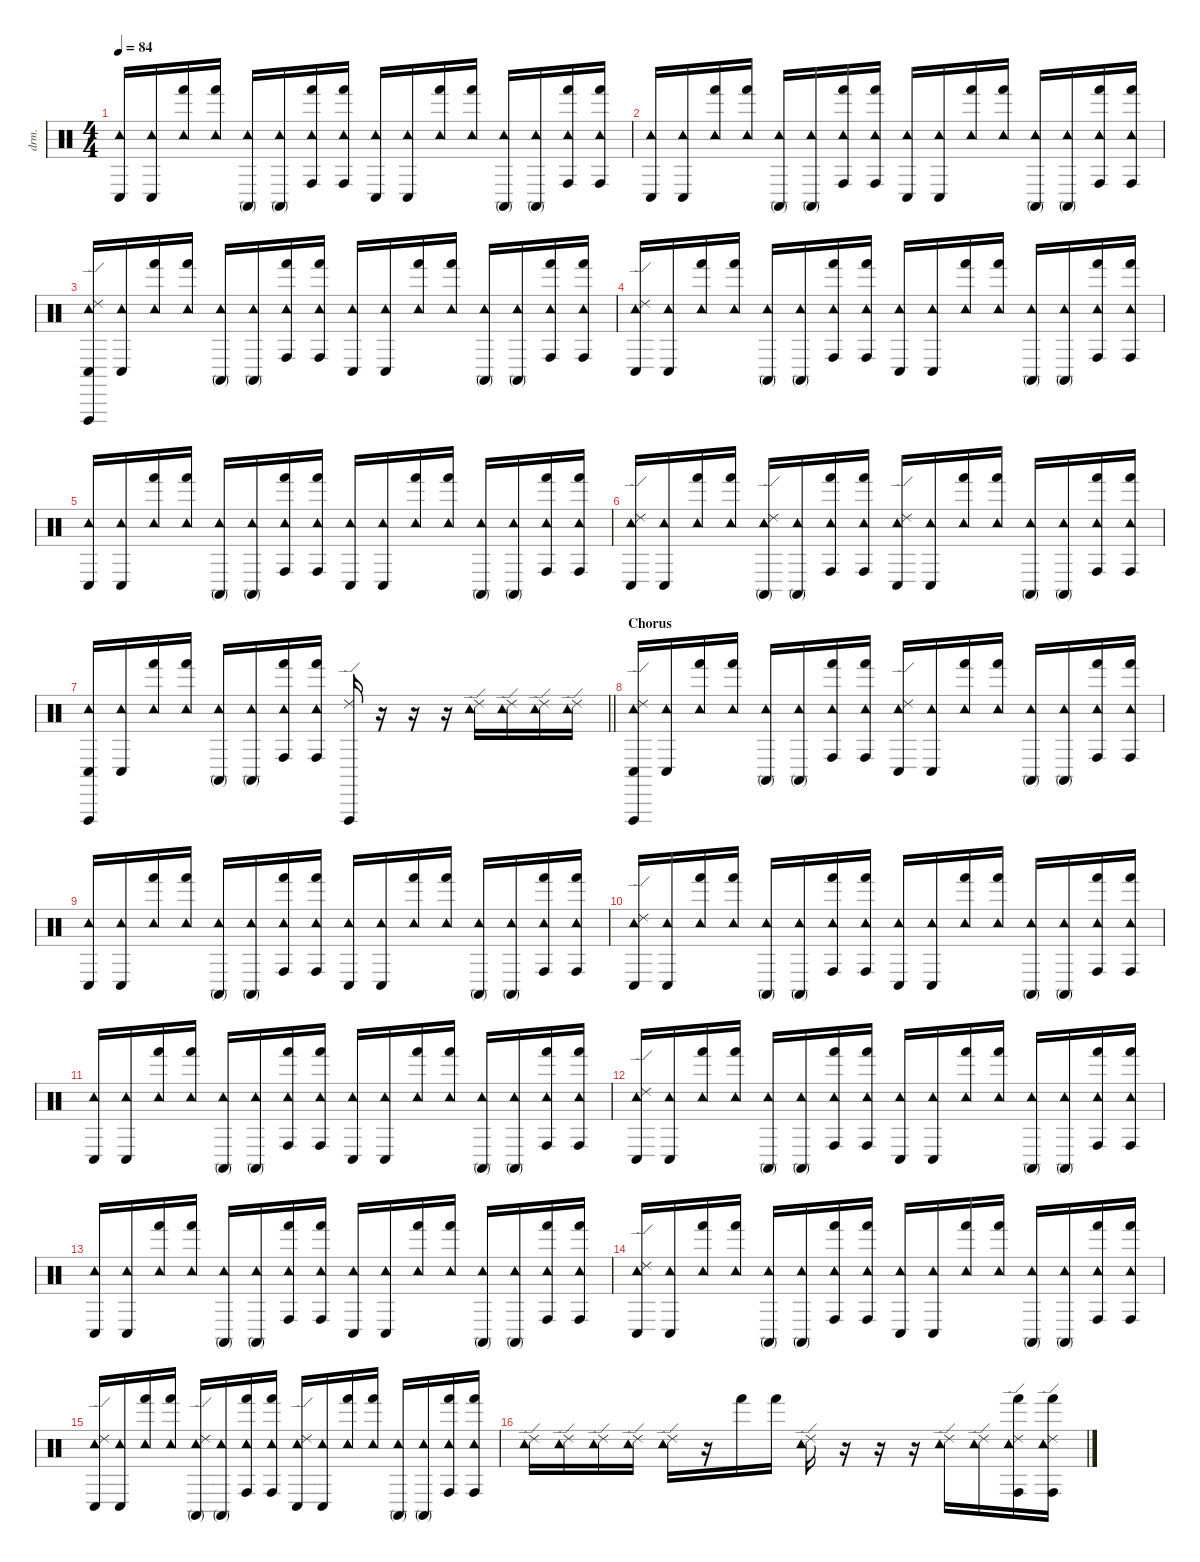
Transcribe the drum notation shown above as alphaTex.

\defaultSystemsLayout 4
\hideDynamics
\bracketExtendMode nobrackets
\otherSystemsTrackNameOrientation horizontal
\track ("Conga + Tambourine" "drm.") {instrument percussion}
\staff {score}
\articulation defaults
\ts (4 4)
\tempo 84
\clef neutral
\ks c
("Conga low (hit)" "Tambourine (hit)").16{dy f beam Up} ("Conga low (hit)" "Tambourine (hit)").16{beam Up} ("Hand (hit)" "Tambourine (hit)").16{beam Up} ("Hand (hit)" "Tambourine (hit)").16{beam Up} ("Conga high (mute)" "Tambourine (hit)").16{beam Up} ("Conga high (mute)" "Tambourine (hit)").16{beam Up} ("Conga high (hit)" "Hand (hit)" "Tambourine (hit)").16{beam Up} ("Conga high (hit)" "Hand (hit)" "Tambourine (hit)").16{beam Up} ("Conga low (hit)" "Tambourine (hit)").16{beam Up} ("Conga low (hit)" "Tambourine (hit)").16{beam Up} ("Hand (hit)" "Tambourine (hit)").16{beam Up} ("Hand (hit)" "Tambourine (hit)").16{beam Up} ("Conga high (mute)" "Tambourine (hit)").16{beam Up} ("Conga high (mute)" "Tambourine (hit)").16{beam Up} ("Conga high (hit)" "Hand (hit)" "Tambourine (hit)").16{beam Up} ("Conga high (hit)" "Hand (hit)" "Tambourine (hit)").16{beam Up} |
("Conga low (hit)" "Tambourine (hit)").16{beam Up} ("Conga low (hit)" "Tambourine (hit)").16{beam Up} ("Hand (hit)" "Tambourine (hit)").16{beam Up} ("Hand (hit)" "Tambourine (hit)").16{beam Up} ("Conga high (mute)" "Tambourine (hit)").16{beam Up} ("Conga high (mute)" "Tambourine (hit)").16{beam Up} ("Conga high (hit)" "Hand (hit)" "Tambourine (hit)").16{beam Up} ("Conga high (hit)" "Hand (hit)" "Tambourine (hit)").16{beam Up} ("Conga low (hit)" "Tambourine (hit)").16{beam Up} ("Conga low (hit)" "Tambourine (hit)").16{beam Up} ("Hand (hit)" "Tambourine (hit)").16{beam Up} ("Hand (hit)" "Tambourine (hit)").16{beam Up} ("Conga high (mute)" "Tambourine (hit)").16{beam Up} ("Conga high (mute)" "Tambourine (hit)").16{beam Up} ("Conga high (hit)" "Hand (hit)" "Tambourine (hit)").16{beam Up} ("Conga high (hit)" "Hand (hit)" "Tambourine (hit)").16{beam Up} |
("Conga low (hit)" "Vibraslap (hit)" "Tambourine (hit)" "Ride (edge) 2").16{beam Up} ("Conga low (hit)" "Tambourine (hit)").16{beam Up} ("Hand (hit)" "Tambourine (hit)").16{beam Up} ("Hand (hit)" "Tambourine (hit)").16{beam Up} ("Conga high (mute)" "Tambourine (hit)").16{beam Up} ("Conga high (mute)" "Tambourine (hit)").16{beam Up} ("Conga high (hit)" "Hand (hit)" "Tambourine (hit)").16{beam Up} ("Conga high (hit)" "Hand (hit)" "Tambourine (hit)").16{beam Up} ("Conga low (hit)" "Tambourine (hit)").16{beam Up} ("Conga low (hit)" "Tambourine (hit)").16{beam Up} ("Hand (hit)" "Tambourine (hit)").16{beam Up} ("Hand (hit)" "Tambourine (hit)").16{beam Up} ("Conga high (mute)" "Tambourine (hit)").16{beam Up} ("Conga high (mute)" "Tambourine (hit)").16{beam Up} ("Conga high (hit)" "Hand (hit)" "Tambourine (hit)").16{beam Up} ("Conga high (hit)" "Hand (hit)" "Tambourine (hit)").16{beam Up} |
("Conga low (hit)" "Tambourine (hit)" "Ride (edge) 2").16{beam Up} ("Conga low (hit)" "Tambourine (hit)").16{beam Up} ("Hand (hit)" "Tambourine (hit)").16{beam Up} ("Hand (hit)" "Tambourine (hit)").16{beam Up} ("Conga high (mute)" "Tambourine (hit)").16{beam Up} ("Conga high (mute)" "Tambourine (hit)").16{beam Up} ("Conga high (hit)" "Hand (hit)" "Tambourine (hit)").16{beam Up} ("Conga high (hit)" "Hand (hit)" "Tambourine (hit)").16{beam Up} ("Conga low (hit)" "Tambourine (hit)").16{beam Up} ("Conga low (hit)" "Tambourine (hit)").16{beam Up} ("Hand (hit)" "Tambourine (hit)").16{beam Up} ("Hand (hit)" "Tambourine (hit)").16{beam Up} ("Conga high (mute)" "Tambourine (hit)").16{beam Up} ("Conga high (mute)" "Tambourine (hit)").16{beam Up} ("Conga high (hit)" "Hand (hit)" "Tambourine (hit)").16{beam Up} ("Conga high (hit)" "Hand (hit)" "Tambourine (hit)").16{beam Up} |
("Conga low (hit)" "Tambourine (hit)").16{beam Up} ("Conga low (hit)" "Tambourine (hit)").16{beam Up} ("Hand (hit)" "Tambourine (hit)").16{beam Up} ("Hand (hit)" "Tambourine (hit)").16{beam Up} ("Conga high (mute)" "Tambourine (hit)").16{beam Up} ("Conga high (mute)" "Tambourine (hit)").16{beam Up} ("Conga high (hit)" "Hand (hit)" "Tambourine (hit)").16{beam Up} ("Conga high (hit)" "Hand (hit)" "Tambourine (hit)").16{beam Up} ("Conga low (hit)" "Tambourine (hit)").16{beam Up} ("Conga low (hit)" "Tambourine (hit)").16{beam Up} ("Hand (hit)" "Tambourine (hit)").16{beam Up} ("Hand (hit)" "Tambourine (hit)").16{beam Up} ("Conga high (mute)" "Tambourine (hit)").16{beam Up} ("Conga high (mute)" "Tambourine (hit)").16{beam Up} ("Conga high (hit)" "Hand (hit)" "Tambourine (hit)").16{beam Up} ("Conga high (hit)" "Hand (hit)" "Tambourine (hit)").16{beam Up} |
("Conga low (hit)" "Tambourine (hit)" "Ride (edge) 2").16{beam Up} ("Conga low (hit)" "Tambourine (hit)").16{beam Up} ("Hand (hit)" "Tambourine (hit)").16{beam Up} ("Hand (hit)" "Tambourine (hit)").16{beam Up} ("Conga high (mute)" "Tambourine (hit)" "Ride (edge) 2").16{beam Up} ("Conga high (mute)" "Tambourine (hit)").16{beam Up} ("Conga high (hit)" "Hand (hit)" "Tambourine (hit)").16{beam Up} ("Conga high (hit)" "Hand (hit)" "Tambourine (hit)").16{beam Up} ("Conga low (hit)" "Tambourine (hit)" "Ride (edge) 2").16{beam Up} ("Conga low (hit)" "Tambourine (hit)").16{beam Up} ("Hand (hit)" "Tambourine (hit)").16{beam Up} ("Hand (hit)" "Tambourine (hit)").16{beam Up} ("Conga high (mute)" "Tambourine (hit)").16{beam Up} ("Conga high (mute)" "Tambourine (hit)").16{beam Up} ("Conga high (hit)" "Hand (hit)" "Tambourine (hit)").16{beam Up} ("Conga high (hit)" "Hand (hit)" "Tambourine (hit)").16{beam Up} |
\barLineRight lightlight
("Conga low (hit)" "Vibraslap (hit)" "Tambourine (hit)").16{beam Up} ("Conga low (hit)" "Tambourine (hit)").16{beam Up} ("Hand (hit)" "Tambourine (hit)").16{beam Up} ("Hand (hit)" "Tambourine (hit)").16{beam Up} ("Conga high (mute)" "Tambourine (hit)").16{beam Up} ("Conga high (mute)" "Tambourine (hit)").16{beam Up} ("Conga high (hit)" "Hand (hit)" "Tambourine (hit)").16{beam Up} ("Conga high (hit)" "Hand (hit)" "Tambourine (hit)").16{beam Up} ("Vibraslap (hit)" "Ride (edge) 2").16{beam Up} r.16{beam Up} r.16{beam Up} r.16{beam Up} ("Tambourine (hit)" "Ride (edge) 2").16{dy mp beam Down} ("Tambourine (hit)" "Ride (edge) 2").16{dy mf beam Down} ("Tambourine (hit)" "Ride (edge) 2").16{dy f beam Down} ("Tambourine (hit)" "Ride (edge) 2").16{dy ff beam Down} |
\section ("" "Chorus")
("Conga low (hit)" "Vibraslap (hit)" "Tambourine (hit)" "Ride (edge) 2").16{dy f beam Up} ("Conga low (hit)" "Tambourine (hit)").16{beam Up} ("Hand (hit)" "Tambourine (hit)").16{beam Up} ("Hand (hit)" "Tambourine (hit)").16{beam Up} ("Conga high (mute)" "Tambourine (hit)").16{beam Up} ("Conga high (mute)" "Tambourine (hit)").16{beam Up} ("Conga high (hit)" "Hand (hit)" "Tambourine (hit)").16{beam Up} ("Conga high (hit)" "Hand (hit)" "Tambourine (hit)").16{beam Up} ("Conga low (hit)" "Tambourine (hit)" "Ride (edge) 2").16{beam Up} ("Conga low (hit)" "Tambourine (hit)").16{beam Up} ("Hand (hit)" "Tambourine (hit)").16{beam Up} ("Hand (hit)" "Tambourine (hit)").16{beam Up} ("Conga high (mute)" "Tambourine (hit)").16{beam Up} ("Conga high (mute)" "Tambourine (hit)").16{beam Up} ("Conga high (hit)" "Hand (hit)" "Tambourine (hit)").16{beam Up} ("Conga high (hit)" "Hand (hit)" "Tambourine (hit)").16{beam Up} |
("Conga low (hit)" "Tambourine (hit)").16{beam Up} ("Conga low (hit)" "Tambourine (hit)").16{beam Up} ("Hand (hit)" "Tambourine (hit)").16{beam Up} ("Hand (hit)" "Tambourine (hit)").16{beam Up} ("Conga high (mute)" "Tambourine (hit)").16{beam Up} ("Conga high (mute)" "Tambourine (hit)").16{beam Up} ("Conga high (hit)" "Hand (hit)" "Tambourine (hit)").16{beam Up} ("Conga high (hit)" "Hand (hit)" "Tambourine (hit)").16{beam Up} ("Conga low (hit)" "Tambourine (hit)").16{beam Up} ("Conga low (hit)" "Tambourine (hit)").16{beam Up} ("Hand (hit)" "Tambourine (hit)").16{beam Up} ("Hand (hit)" "Tambourine (hit)").16{beam Up} ("Conga high (mute)" "Tambourine (hit)").16{beam Up} ("Conga high (mute)" "Tambourine (hit)").16{beam Up} ("Conga high (hit)" "Hand (hit)" "Tambourine (hit)").16{beam Up} ("Conga high (hit)" "Hand (hit)" "Tambourine (hit)").16{beam Up} |
("Conga low (hit)" "Tambourine (hit)" "Ride (edge) 2").16{beam Up} ("Conga low (hit)" "Tambourine (hit)").16{beam Up} ("Hand (hit)" "Tambourine (hit)").16{beam Up} ("Hand (hit)" "Tambourine (hit)").16{beam Up} ("Conga high (mute)" "Tambourine (hit)").16{beam Up} ("Conga high (mute)" "Tambourine (hit)").16{beam Up} ("Conga high (hit)" "Hand (hit)" "Tambourine (hit)").16{beam Up} ("Conga high (hit)" "Hand (hit)" "Tambourine (hit)").16{beam Up} ("Conga low (hit)" "Tambourine (hit)").16{beam Up} ("Conga low (hit)" "Tambourine (hit)").16{beam Up} ("Hand (hit)" "Tambourine (hit)").16{beam Up} ("Hand (hit)" "Tambourine (hit)").16{beam Up} ("Conga high (mute)" "Tambourine (hit)").16{beam Up} ("Conga high (mute)" "Tambourine (hit)").16{beam Up} ("Conga high (hit)" "Hand (hit)" "Tambourine (hit)").16{beam Up} ("Conga high (hit)" "Hand (hit)" "Tambourine (hit)").16{beam Up} |
("Conga low (hit)" "Tambourine (hit)").16{beam Up} ("Conga low (hit)" "Tambourine (hit)").16{beam Up} ("Hand (hit)" "Tambourine (hit)").16{beam Up} ("Hand (hit)" "Tambourine (hit)").16{beam Up} ("Conga high (mute)" "Tambourine (hit)").16{beam Up} ("Conga high (mute)" "Tambourine (hit)").16{beam Up} ("Conga high (hit)" "Hand (hit)" "Tambourine (hit)").16{beam Up} ("Conga high (hit)" "Hand (hit)" "Tambourine (hit)").16{beam Up} ("Conga low (hit)" "Tambourine (hit)").16{beam Up} ("Conga low (hit)" "Tambourine (hit)").16{beam Up} ("Hand (hit)" "Tambourine (hit)").16{beam Up} ("Hand (hit)" "Tambourine (hit)").16{beam Up} ("Conga high (mute)" "Tambourine (hit)").16{beam Up} ("Conga high (mute)" "Tambourine (hit)").16{beam Up} ("Conga high (hit)" "Hand (hit)" "Tambourine (hit)").16{beam Up} ("Conga high (hit)" "Hand (hit)" "Tambourine (hit)").16{beam Up} |
("Conga low (hit)" "Tambourine (hit)" "Ride (edge) 2").16{beam Up} ("Conga low (hit)" "Tambourine (hit)").16{beam Up} ("Hand (hit)" "Tambourine (hit)").16{beam Up} ("Hand (hit)" "Tambourine (hit)").16{beam Up} ("Conga high (mute)" "Tambourine (hit)").16{beam Up} ("Conga high (mute)" "Tambourine (hit)").16{beam Up} ("Conga high (hit)" "Hand (hit)" "Tambourine (hit)").16{beam Up} ("Conga high (hit)" "Hand (hit)" "Tambourine (hit)").16{beam Up} ("Conga low (hit)" "Tambourine (hit)").16{beam Up} ("Conga low (hit)" "Tambourine (hit)").16{beam Up} ("Hand (hit)" "Tambourine (hit)").16{beam Up} ("Hand (hit)" "Tambourine (hit)").16{beam Up} ("Conga high (mute)" "Tambourine (hit)").16{beam Up} ("Conga high (mute)" "Tambourine (hit)").16{beam Up} ("Conga high (hit)" "Hand (hit)" "Tambourine (hit)").16{beam Up} ("Conga high (hit)" "Hand (hit)" "Tambourine (hit)").16{beam Up} |
("Conga low (hit)" "Tambourine (hit)").16{beam Up} ("Conga low (hit)" "Tambourine (hit)").16{beam Up} ("Hand (hit)" "Tambourine (hit)").16{beam Up} ("Hand (hit)" "Tambourine (hit)").16{beam Up} ("Conga high (mute)" "Tambourine (hit)").16{beam Up} ("Conga high (mute)" "Tambourine (hit)").16{beam Up} ("Conga high (hit)" "Hand (hit)" "Tambourine (hit)").16{beam Up} ("Conga high (hit)" "Hand (hit)" "Tambourine (hit)").16{beam Up} ("Conga low (hit)" "Tambourine (hit)").16{beam Up} ("Conga low (hit)" "Tambourine (hit)").16{beam Up} ("Hand (hit)" "Tambourine (hit)").16{beam Up} ("Hand (hit)" "Tambourine (hit)").16{beam Up} ("Conga high (mute)" "Tambourine (hit)").16{beam Up} ("Conga high (mute)" "Tambourine (hit)").16{beam Up} ("Conga high (hit)" "Hand (hit)" "Tambourine (hit)").16{beam Up} ("Conga high (hit)" "Hand (hit)" "Tambourine (hit)").16{beam Up} |
("Conga low (hit)" "Tambourine (hit)" "Ride (edge) 2").16{beam Up} ("Conga low (hit)" "Tambourine (hit)").16{beam Up} ("Hand (hit)" "Tambourine (hit)").16{beam Up} ("Hand (hit)" "Tambourine (hit)").16{beam Up} ("Conga high (mute)" "Tambourine (hit)").16{beam Up} ("Conga high (mute)" "Tambourine (hit)").16{beam Up} ("Conga high (hit)" "Hand (hit)" "Tambourine (hit)").16{beam Up} ("Conga high (hit)" "Hand (hit)" "Tambourine (hit)").16{beam Up} ("Conga low (hit)" "Tambourine (hit)").16{beam Up} ("Conga low (hit)" "Tambourine (hit)").16{beam Up} ("Hand (hit)" "Tambourine (hit)").16{beam Up} ("Hand (hit)" "Tambourine (hit)").16{beam Up} ("Conga high (mute)" "Tambourine (hit)").16{beam Up} ("Conga high (mute)" "Tambourine (hit)").16{beam Up} ("Conga high (hit)" "Hand (hit)" "Tambourine (hit)").16{beam Up} ("Conga high (hit)" "Hand (hit)" "Tambourine (hit)").16{beam Up} |
("Conga low (hit)" "Tambourine (hit)" "Ride (edge) 2").16{beam Up} ("Conga low (hit)" "Tambourine (hit)").16{beam Up} ("Hand (hit)" "Tambourine (hit)").16{beam Up} ("Hand (hit)" "Tambourine (hit)").16{beam Up} ("Conga high (mute)" "Tambourine (hit)" "Ride (edge) 2").16{beam Up} ("Conga high (mute)" "Tambourine (hit)").16{beam Up} ("Conga high (hit)" "Hand (hit)" "Tambourine (hit)").16{beam Up} ("Conga high (hit)" "Hand (hit)" "Tambourine (hit)").16{beam Up} ("Conga low (hit)" "Tambourine (hit)" "Ride (edge) 2").16{beam Up} ("Conga low (hit)" "Tambourine (hit)").16{beam Up} ("Hand (hit)" "Tambourine (hit)").16{beam Up} ("Hand (hit)" "Tambourine (hit)").16{beam Up} ("Conga high (mute)" "Tambourine (hit)").16{beam Up} ("Conga high (mute)" "Tambourine (hit)").16{beam Up} ("Conga high (hit)" "Hand (hit)" "Tambourine (hit)").16{beam Up} ("Conga high (hit)" "Hand (hit)" "Tambourine (hit)").16{beam Up} |
("Tambourine (hit)" "Ride (edge) 2").16{beam Down} ("Tambourine (hit)" "Ride (edge) 2").16{dy mp beam Down} ("Tambourine (hit)" "Ride (edge) 2").16{beam Down} ("Tambourine (hit)" "Ride (edge) 2").16{beam Down} ("Tambourine (hit)" "Ride (edge) 2").16{dy f beam Down} r.16{beam Down} "Hand (hit)".16{beam Down} "Hand (hit)".16{beam Down} ("Tambourine (hit)" "Ride (edge) 2").16{beam Down} r.16{beam Down} r.16{beam Down} r.16{beam Down} ("Tambourine (hit)" "Ride (edge) 2").16{dy mp beam Down} ("Tambourine (hit)" "Ride (edge) 2").16{dy mf beam Down} ("Conga high (hit)" "Hand (hit)" "Tambourine (hit)" "Ride (edge) 2").16{dy f beam Down} ("Conga high (hit)" "Hand (hit)" "Tambourine (hit)" "Ride (edge) 2").16{beam Down}
